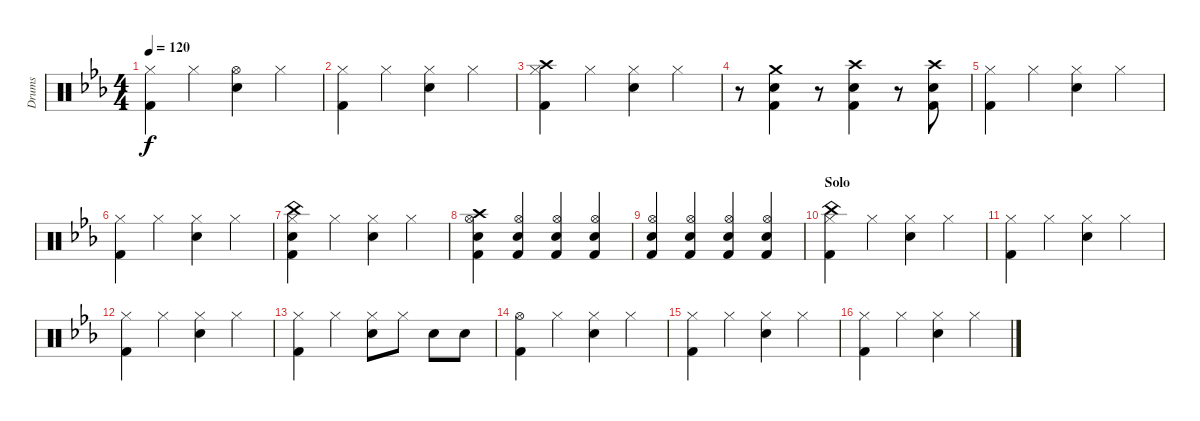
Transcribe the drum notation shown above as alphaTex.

\track ("Drums" "Drums") {instrument percussion}
\staff {score}
\articulation defaults
\ts (4 4)
\tempo 120
\clef neutral
\ks cminor
("Hi-Hat (closed)" "Kick (hit) 2").4{dy f} "Hi-Hat (closed)".4 ("Hi-Hat (open)" "Snare (hit) 2").4 "Hi-Hat (closed)".4 |
("Hi-Hat (closed)" "Kick (hit) 2").4 "Hi-Hat (closed)".4 ("Hi-Hat (closed)" "Snare (hit) 2").4 "Hi-Hat (closed)".4 |
("Hi-Hat (closed)" "Crash high (hit)" "Kick (hit) 2").4 "Hi-Hat (closed)".4 ("Hi-Hat (closed)" "Snare (hit) 2").4 "Hi-Hat (closed)".4 |
r.8 ("Crash medium (hit)" "Snare (hit) 2" "Kick (hit) 2").4 r.8 ("Crash high (hit)" "Snare (hit) 2" "Kick (hit) 2").4 r.8 ("Crash high (hit)" "Snare (hit) 2" "Kick (hit) 2").8 |
("Hi-Hat (closed)" "Kick (hit) 2").4 "Hi-Hat (closed)".4 ("Hi-Hat (closed)" "Snare (hit) 2").4 "Hi-Hat (closed)".4 |
("Hi-Hat (closed)" "Kick (hit) 2").4 "Hi-Hat (closed)".4 ("Hi-Hat (closed)" "Snare (hit) 2").4 "Hi-Hat (closed)".4 |
("Hi-Hat (closed)" "China (hit)" "Snare (hit) 2" "Kick (hit) 2").4 "Hi-Hat (closed)".4 ("Hi-Hat (closed)" "Snare (hit) 2").4 "Hi-Hat (closed)".4 |
("Hi-Hat (open)" "Crash high (hit)" "Snare (hit) 2" "Kick (hit) 2").4 ("Hi-Hat (open)" "Snare (hit) 2" "Kick (hit) 2").4 ("Hi-Hat (open)" "Snare (hit) 2" "Kick (hit) 2").4 ("Hi-Hat (open)" "Snare (hit) 2" "Kick (hit) 2").4 |
("Hi-Hat (open)" "Snare (hit) 2" "Kick (hit) 2").4 ("Hi-Hat (open)" "Snare (hit) 2" "Kick (hit) 2").4 ("Hi-Hat (open)" "Snare (hit) 2" "Kick (hit) 2").4 ("Hi-Hat (open)" "Snare (hit) 2" "Kick (hit) 2").4 |
\section ("" "Solo")
("Hi-Hat (closed)" "China (hit)" "Kick (hit) 2").4 "Hi-Hat (closed)".4 ("Hi-Hat (closed)" "Snare (hit) 2").4 "Hi-Hat (closed)".4 |
("Hi-Hat (closed)" "Kick (hit) 2").4 "Hi-Hat (closed)".4 ("Hi-Hat (closed)" "Snare (hit) 2").4 "Hi-Hat (closed)".4 |
("Hi-Hat (closed)" "Kick (hit) 2").4 "Hi-Hat (closed)".4 ("Hi-Hat (closed)" "Snare (hit) 2").4 "Hi-Hat (closed)".4 |
("Hi-Hat (closed)" "Kick (hit) 2").4 "Hi-Hat (closed)".4 ("Hi-Hat (closed)" "Snare (hit) 2").8 "Hi-Hat (closed)".8 "Snare (hit) 2".8 "Snare (hit) 2".8 |
("Hi-Hat (open)" "Kick (hit) 2").4 "Hi-Hat (closed)".4 ("Hi-Hat (closed)" "Snare (hit) 2").4 "Hi-Hat (closed)".4 |
("Hi-Hat (closed)" "Kick (hit) 2").4 "Hi-Hat (closed)".4 ("Hi-Hat (closed)" "Snare (hit) 2").4 "Hi-Hat (closed)".4 |
("Hi-Hat (closed)" "Kick (hit) 2").4 "Hi-Hat (closed)".4 ("Hi-Hat (closed)" "Snare (hit) 2").4 "Hi-Hat (closed)".4
